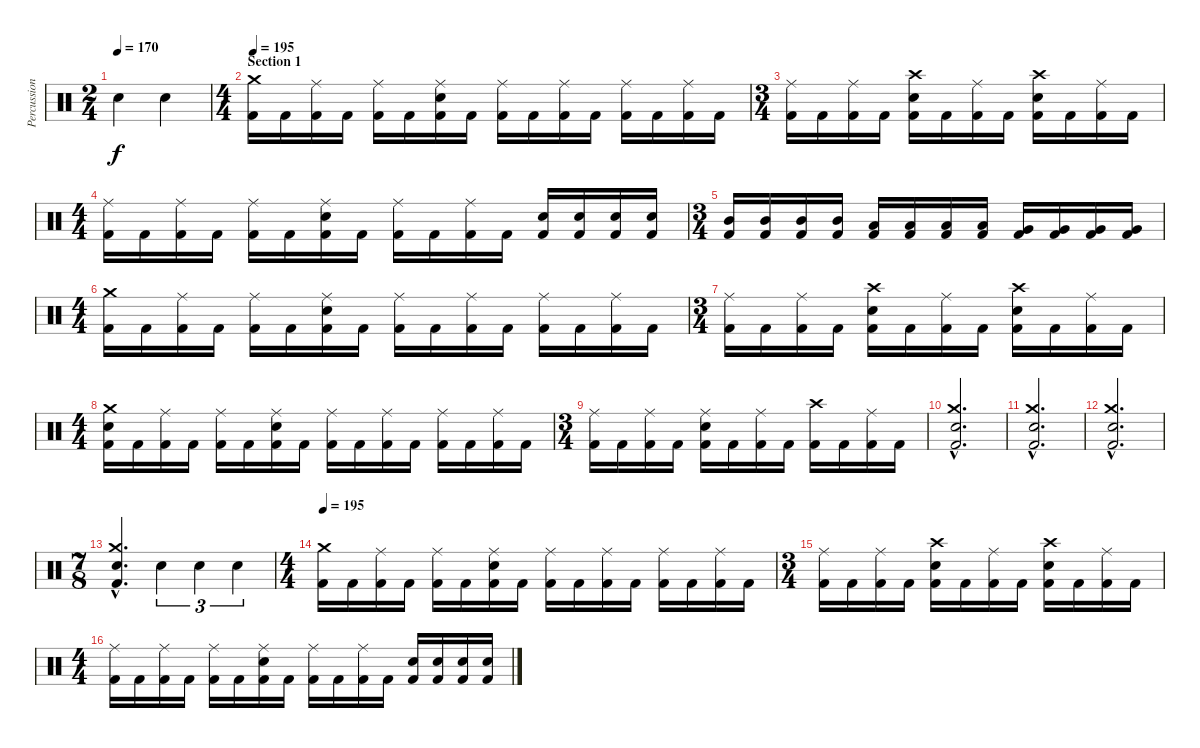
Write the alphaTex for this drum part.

\track ("Percussion" "Percussion") {instrument percussion}
\staff {score}
\articulation defaults
\ts (2 4)
\tempo 170
\tempo 195
\tempo 170
\clef neutral
\ks c "Electric Snare (hit)".4{dy f} "Electric Snare (hit)".4
|
\ts (4 4)
\section ("" "Section 1")
\tempo 195
("Crash medium (hit)" "Kick (hit) 2").16 "Kick (hit) 2".16 ("Ride (middle)" "Kick (hit) 2").16 "Kick (hit) 2".16 ("Ride (middle)" "Kick (hit) 2").16 "Kick (hit) 2".16 ("Ride (middle)" "Electric Snare (hit)" "Kick (hit) 2").16 "Kick (hit) 2".16 ("Ride (middle)" "Kick (hit) 2").16 "Kick (hit) 2".16 ("Ride (middle)" "Kick (hit) 2").16 "Kick (hit) 2".16 ("Ride (middle)" "Kick (hit) 2").16 "Kick (hit) 2".16 ("Ride (middle)" "Kick (hit) 2").16 "Kick (hit) 2".16 |
\ts (3 4)
("Ride (middle)" "Kick (hit) 2").16 "Kick (hit) 2".16 ("Ride (middle)" "Kick (hit) 2").16 "Kick (hit) 2".16 ("Crash high (hit)" "Electric Snare (hit)" "Kick (hit) 2").16 "Kick (hit) 2".16 ("Ride (middle)" "Kick (hit) 2").16 "Kick (hit) 2".16 ("Crash high (hit)" "Electric Snare (hit)" "Kick (hit) 2").16 "Kick (hit) 2".16 ("Ride (middle)" "Kick (hit) 2").16 "Kick (hit) 2".16 |
\ts (4 4)
("Ride (middle)" "Kick (hit) 2").16 "Kick (hit) 2".16 ("Ride (middle)" "Kick (hit) 2").16 "Kick (hit) 2".16 ("Ride (middle)" "Kick (hit) 2").16 "Kick (hit) 2".16 ("Ride (middle)" "Electric Snare (hit)" "Kick (hit) 2").16 "Kick (hit) 2".16 ("Ride (middle)" "Kick (hit) 2").16 "Kick (hit) 2".16 ("Ride (middle)" "Kick (hit) 2").16 "Kick (hit) 2".16 ("Electric Snare (hit)" "Kick (hit) 2").16 ("Electric Snare (hit)" "Kick (hit) 2").16 ("Electric Snare (hit)" "Kick (hit) 2").16 ("Electric Snare (hit)" "Kick (hit) 2").16 |
\ts (3 4)
("Mid Tom (hit)" "Kick (hit) 2").16 ("Mid Tom (hit)" "Kick (hit) 2").16 ("Mid Tom (hit)" "Kick (hit) 2").16 ("Mid Tom (hit)" "Kick (hit) 2").16 ("Low Tom (hit)" "Kick (hit) 2").16 ("Low Tom (hit)" "Kick (hit) 2").16 ("Low Tom (hit)" "Kick (hit) 2").16 ("Low Tom (hit)" "Kick (hit) 2").16 ("Very Low Tom (hit)" "Kick (hit) 2").16 ("Very Low Tom (hit)" "Kick (hit) 2").16 ("Very Low Tom (hit)" "Kick (hit) 2").16 ("Very Low Tom (hit)" "Kick (hit) 2").16 |
\ts (4 4)
("Crash medium (hit)" "Kick (hit) 2").16 "Kick (hit) 2".16 ("Ride (middle)" "Kick (hit) 2").16 "Kick (hit) 2".16 ("Ride (middle)" "Kick (hit) 2").16 "Kick (hit) 2".16 ("Ride (middle)" "Electric Snare (hit)" "Kick (hit) 2").16 "Kick (hit) 2".16 ("Ride (middle)" "Kick (hit) 2").16 "Kick (hit) 2".16 ("Ride (middle)" "Kick (hit) 2").16 "Kick (hit) 2".16 ("Ride (middle)" "Kick (hit) 2").16 "Kick (hit) 2".16 ("Ride (middle)" "Kick (hit) 2").16 "Kick (hit) 2".16 |
\ts (3 4)
("Ride (middle)" "Kick (hit) 2").16 "Kick (hit) 2".16 ("Ride (middle)" "Kick (hit) 2").16 "Kick (hit) 2".16 ("Crash high (hit)" "Electric Snare (hit)" "Kick (hit) 2").16 "Kick (hit) 2".16 ("Ride (middle)" "Kick (hit) 2").16 "Kick (hit) 2".16 ("Crash high (hit)" "Electric Snare (hit)" "Kick (hit) 2").16 "Kick (hit) 2".16 ("Ride (middle)" "Kick (hit) 2").16 "Kick (hit) 2".16 |
\ts (4 4)
("Crash medium (hit)" "Electric Snare (hit)" "Kick (hit) 2").16 "Kick (hit) 2".16 ("Ride (middle)" "Kick (hit) 2").16 "Kick (hit) 2".16 ("Ride (middle)" "Kick (hit) 2").16 "Kick (hit) 2".16 ("Ride (middle)" "Electric Snare (hit)" "Kick (hit) 2").16 "Kick (hit) 2".16 ("Ride (middle)" "Kick (hit) 2").16 "Kick (hit) 2".16 ("Ride (middle)" "Kick (hit) 2").16 "Kick (hit) 2".16 ("Ride (middle)" "Kick (hit) 2").16 "Kick (hit) 2".16 ("Ride (middle)" "Kick (hit) 2").16 "Kick (hit) 2".16 |
\ts (3 4)
("Ride (middle)" "Kick (hit) 2").16 "Kick (hit) 2".16 ("Ride (middle)" "Kick (hit) 2").16 "Kick (hit) 2".16 ("Ride (middle)" "Electric Snare (hit)" "Kick (hit) 2").16 "Kick (hit) 2".16 ("Ride (middle)" "Kick (hit) 2").16 "Kick (hit) 2".16 ("Crash high (hit)" "Kick (hit) 2").16 "Kick (hit) 2".16 ("Ride (middle)" "Kick (hit) 2").16 "Kick (hit) 2".16 |
("Crash medium (hit)"{hac} "Electric Snare (hit)"{hac} "Kick (hit) 2"{hac}).2{d} |
("Crash medium (hit)"{hac} "Electric Snare (hit)"{hac} "Kick (hit) 2"{hac}).2{d} |
("Crash medium (hit)"{hac} "Electric Snare (hit)"{hac} "Kick (hit) 2"{hac}).2{d} |
\ts (7 8)
("Crash medium (hit)"{hac} "Electric Snare (hit)"{hac} "Kick (hit) 2"{hac}).4{d} "Electric Snare (hit)".4{tu (3 2)} "Electric Snare (hit)".4{tu (3 2)} "Electric Snare (hit)".4{tu (3 2)} |
\ts (4 4)
\tempo 195
("Crash medium (hit)" "Kick (hit) 2").16 "Kick (hit) 2".16 ("Ride (middle)" "Kick (hit) 2").16 "Kick (hit) 2".16 ("Ride (middle)" "Kick (hit) 2").16 "Kick (hit) 2".16 ("Ride (middle)" "Electric Snare (hit)" "Kick (hit) 2").16 "Kick (hit) 2".16 ("Ride (middle)" "Kick (hit) 2").16 "Kick (hit) 2".16 ("Ride (middle)" "Kick (hit) 2").16 "Kick (hit) 2".16 ("Ride (middle)" "Kick (hit) 2").16 "Kick (hit) 2".16 ("Ride (middle)" "Kick (hit) 2").16 "Kick (hit) 2".16 |
\ts (3 4)
("Ride (middle)" "Kick (hit) 2").16 "Kick (hit) 2".16 ("Ride (middle)" "Kick (hit) 2").16 "Kick (hit) 2".16 ("Crash high (hit)" "Electric Snare (hit)" "Kick (hit) 2").16 "Kick (hit) 2".16 ("Ride (middle)" "Kick (hit) 2").16 "Kick (hit) 2".16 ("Crash high (hit)" "Electric Snare (hit)" "Kick (hit) 2").16 "Kick (hit) 2".16 ("Ride (middle)" "Kick (hit) 2").16 "Kick (hit) 2".16 |
\ts (4 4)
("Ride (middle)" "Kick (hit) 2").16 "Kick (hit) 2".16 ("Ride (middle)" "Kick (hit) 2").16 "Kick (hit) 2".16 ("Ride (middle)" "Kick (hit) 2").16 "Kick (hit) 2".16 ("Ride (middle)" "Electric Snare (hit)" "Kick (hit) 2").16 "Kick (hit) 2".16 ("Ride (middle)" "Kick (hit) 2").16 "Kick (hit) 2".16 ("Ride (middle)" "Kick (hit) 2").16 "Kick (hit) 2".16 ("Electric Snare (hit)" "Kick (hit) 2").16 ("Electric Snare (hit)" "Kick (hit) 2").16 ("Electric Snare (hit)" "Kick (hit) 2").16 ("Electric Snare (hit)" "Kick (hit) 2").16
